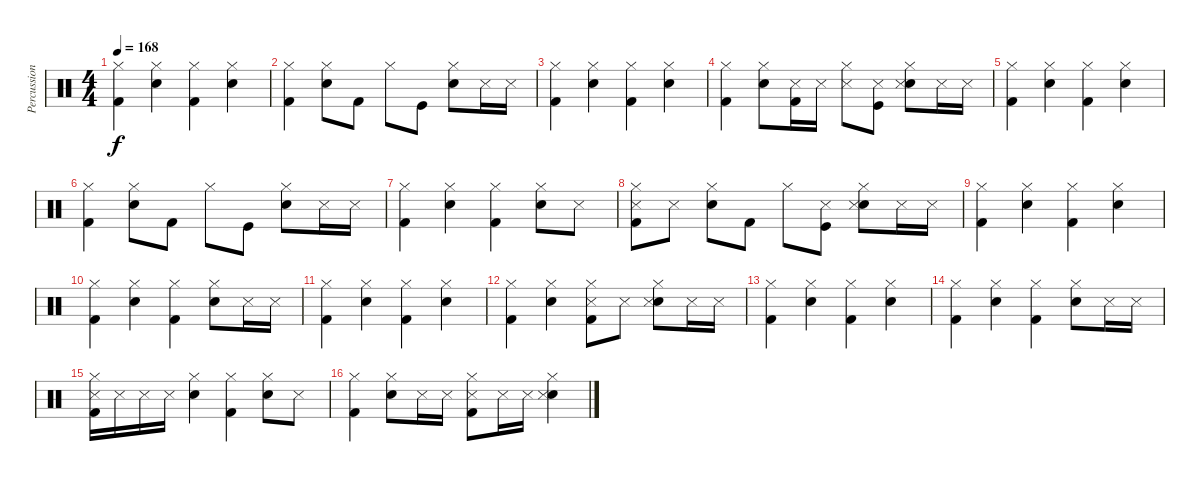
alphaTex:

\track ("Percussion" "Percussion") {instrument percussion}
\staff {score}
\articulation defaults
\ts (4 4)
\tempo 168
\clef neutral
\ks c
("Hi-Hat (closed)" "Kick (hit) 2").4{dy f} ("Snare (hit) 2" "Hi-Hat (closed)").4 ("Kick (hit) 2" "Hi-Hat (closed)").4 ("Snare (hit) 2" "Hi-Hat (closed)").4 |
("Hi-Hat (closed)" "Kick (hit) 2").4 ("Snare (hit) 2" "Hi-Hat (closed)").8 "Kick (hit) 2".8 "Hi-Hat (closed)".8 "Kick (hit)".8 ("Electric Snare (hit)" "Hi-Hat (closed)").8 "Snare (side stick) 3".16 "Snare (side stick) 3".16 |
("Hi-Hat (closed)" "Kick (hit) 2").4 ("Snare (hit) 2" "Hi-Hat (closed)").4 ("Kick (hit) 2" "Hi-Hat (closed)").4 ("Snare (hit) 2" "Hi-Hat (closed)").4 |
("Hi-Hat (closed)" "Kick (hit) 2").4 ("Snare (hit) 2" "Hi-Hat (closed)").8 ("Kick (hit) 2" "Snare (side stick) 3").16 "Snare (side stick) 3".16 ("Hi-Hat (closed)" "Snare (side stick) 3").8 ("Kick (hit)" "Snare (side stick) 3").8 ("Electric Snare (hit)" "Hi-Hat (closed)" "Snare (side stick) 3").8 "Snare (side stick) 3".16 "Snare (side stick) 3".16 |
("Hi-Hat (closed)" "Kick (hit) 2").4 ("Snare (hit) 2" "Hi-Hat (closed)").4 ("Kick (hit) 2" "Hi-Hat (closed)").4 ("Snare (hit) 2" "Hi-Hat (closed)").4 |
("Hi-Hat (closed)" "Kick (hit) 2").4 ("Snare (hit) 2" "Hi-Hat (closed)").8 "Kick (hit) 2".8 "Hi-Hat (closed)".8 "Kick (hit)".8 ("Electric Snare (hit)" "Hi-Hat (closed)").8 "Snare (side stick) 3".16 "Snare (side stick) 3".16 |
("Hi-Hat (closed)" "Kick (hit) 2").4 ("Snare (hit) 2" "Hi-Hat (closed)").4 ("Kick (hit) 2" "Hi-Hat (closed)").4 ("Snare (hit) 2" "Hi-Hat (closed)").8 "Snare (side stick) 3".8 |
("Hi-Hat (closed)" "Kick (hit) 2" "Snare (side stick) 3").8 "Snare (side stick) 3".8 ("Snare (hit) 2" "Hi-Hat (closed)").8 "Kick (hit) 2".8 "Hi-Hat (closed)".8 ("Kick (hit)" "Snare (side stick) 3").8 ("Snare (hit) 2" "Hi-Hat (closed)" "Snare (side stick) 3").8 "Snare (side stick) 3".16 "Snare (side stick) 3".16 |
("Hi-Hat (closed)" "Kick (hit) 2").4 ("Snare (hit) 2" "Hi-Hat (closed)").4 ("Kick (hit) 2" "Hi-Hat (closed)").4 ("Snare (hit) 2" "Hi-Hat (closed)").4 |
("Hi-Hat (closed)" "Kick (hit) 2").4 ("Snare (hit) 2" "Hi-Hat (closed)").4 ("Kick (hit) 2" "Hi-Hat (closed)").4 ("Electric Snare (hit)" "Hi-Hat (closed)").8 "Snare (side stick) 3".16 "Snare (side stick) 3".16 |
("Hi-Hat (closed)" "Kick (hit) 2").4 ("Snare (hit) 2" "Hi-Hat (closed)").4 ("Kick (hit) 2" "Hi-Hat (closed)").4 ("Snare (hit) 2" "Hi-Hat (closed)").4 |
("Hi-Hat (closed)" "Kick (hit) 2").4 ("Snare (hit) 2" "Hi-Hat (closed)").4 ("Hi-Hat (closed)" "Snare (side stick) 3" "Kick (hit) 2").8 "Snare (side stick) 3".8 ("Electric Snare (hit)" "Hi-Hat (closed)" "Snare (side stick) 3").8 "Snare (side stick) 3".16 "Snare (side stick) 3".16 |
("Hi-Hat (closed)" "Kick (hit) 2").4 ("Snare (hit) 2" "Hi-Hat (closed)").4 ("Kick (hit) 2" "Hi-Hat (closed)").4 ("Snare (hit) 2" "Hi-Hat (closed)").4 |
("Hi-Hat (closed)" "Kick (hit) 2").4 ("Snare (hit) 2" "Hi-Hat (closed)").4 ("Hi-Hat (closed)" "Kick (hit) 2").4 ("Electric Snare (hit)" "Hi-Hat (closed)").8 "Snare (side stick) 3".16 "Snare (side stick) 3".16 |
("Hi-Hat (closed)" "Kick (hit) 2" "Snare (side stick) 3").16 "Snare (side stick) 3".16 "Snare (side stick) 3".16 "Snare (side stick) 3".16 ("Snare (hit) 2" "Hi-Hat (closed)").4 ("Kick (hit) 2" "Hi-Hat (closed)").4 ("Snare (hit) 2" "Hi-Hat (closed)").8 "Snare (side stick) 3".8 |
("Hi-Hat (closed)" "Kick (hit) 2").4 ("Snare (hit) 2" "Hi-Hat (closed)").8 "Snare (side stick) 3".16 "Snare (side stick) 3".16 ("Hi-Hat (closed)" "Kick (hit) 2" "Snare (side stick) 3").8 "Snare (side stick) 3".16 "Snare (side stick) 3".16 ("Snare (hit) 2" "Hi-Hat (closed)" "Snare (side stick) 3").4
